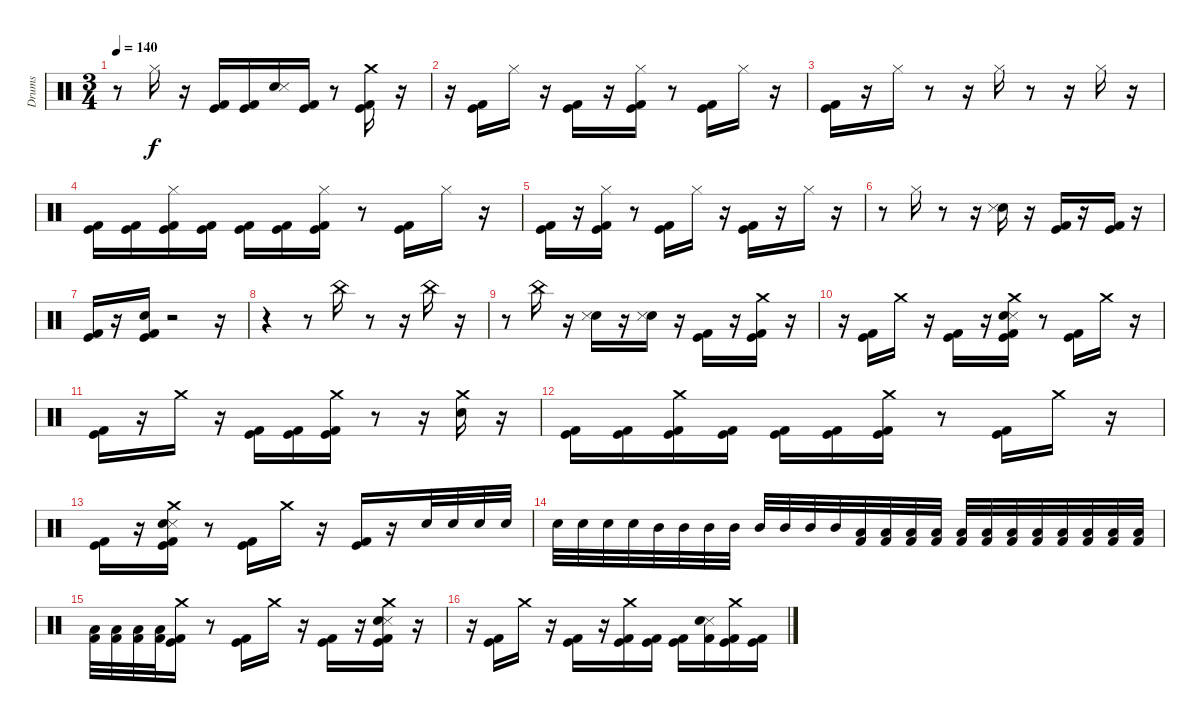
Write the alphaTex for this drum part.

\track ("Drums" "Drums") {instrument percussion}
\staff {score}
\articulation defaults
\ts (3 4)
\tempo 140
\clef neutral
\ks c
r.8{dy f} "Hi-Hat (closed)".16 r.16 ("Kick (hit)" "Kick (hit) 2").16 ("Kick (hit)" "Kick (hit) 2").16 ("Electric Snare (hit)" "Snare (side stick) 3").16 ("Kick (hit)" "Kick (hit) 2").16 r.8 ("Crash medium (hit)" "Kick (hit)" "Kick (hit) 2").16 r.16 |
r.16 ("Kick (hit)" "Kick (hit) 2").16 "Hi-Hat (closed)".16 r.16 ("Kick (hit)" "Kick (hit) 2").16 r.16 ("Hi-Hat (closed)" "Kick (hit)" "Kick (hit) 2").16 r.8 ("Kick (hit)" "Kick (hit) 2").16 "Hi-Hat (closed)".16 r.16 |
("Kick (hit)" "Kick (hit) 2").16 r.16 "Hi-Hat (closed)".16 r.8 r.16 "Hi-Hat (closed)".16 r.8 r.16 "Hi-Hat (closed)".16 r.16 |
("Kick (hit)" "Kick (hit) 2").16 ("Kick (hit)" "Kick (hit) 2").16 ("Hi-Hat (closed)" "Kick (hit)" "Kick (hit) 2").16 ("Kick (hit)" "Kick (hit) 2").16 ("Kick (hit)" "Kick (hit) 2").16 ("Kick (hit)" "Kick (hit) 2").16 ("Hi-Hat (closed)" "Kick (hit)" "Kick (hit) 2").16 r.8 ("Kick (hit)" "Kick (hit) 2").16 "Hi-Hat (closed)".16 r.16 |
("Kick (hit)" "Kick (hit) 2").16 r.16 ("Hi-Hat (closed)" "Kick (hit)" "Kick (hit) 2").16 r.8 ("Kick (hit)" "Kick (hit) 2").16 "Hi-Hat (closed)".16 r.16 ("Kick (hit)" "Kick (hit) 2").16 r.16 "Hi-Hat (closed)".16 r.16 |
r.8 "Hi-Hat (closed)".16 r.8 r.16 ("Electric Snare (hit)" "Snare (side stick) 3").16 r.16 ("Kick (hit)" "Kick (hit) 2").16 r.16 ("Kick (hit)" "Kick (hit) 2").16 r.16 |
("Kick (hit)" "Kick (hit) 2").16 r.16 ("Kick (hit) 2" "Electric Snare (hit)" "Kick (hit)").16 r.2 r.16 |
r.4 r.8 "China (hit)".16 r.8 r.16 "China (hit)".16 r.16 |
r.8 "China (hit)".16 r.16 ("Electric Snare (hit)" "Snare (side stick) 3").16 r.16 ("Electric Snare (hit)" "Snare (side stick) 3").16 r.16 ("Kick (hit)" "Kick (hit) 2").16 r.16 ("Crash medium (hit)" "Kick (hit)" "Kick (hit) 2").16 r.16 |
r.16 ("Kick (hit)" "Kick (hit) 2").16 "Crash medium (hit)".16 r.16 ("Kick (hit)" "Kick (hit) 2").16 r.16 ("Crash medium (hit)" "Snare (side stick) 3" "Electric Snare (hit)" "Kick (hit)" "Kick (hit) 2").16 r.8 ("Kick (hit)" "Kick (hit) 2").16 "Crash medium (hit)".16 r.16 |
("Kick (hit)" "Kick (hit) 2").16 r.16 "Crash medium (hit)".16 r.16 ("Kick (hit)" "Kick (hit) 2").16 ("Kick (hit)" "Kick (hit) 2").16 ("Crash medium (hit)" "Kick (hit)" "Kick (hit) 2").16 r.8 r.16 ("Crash medium (hit)" "Electric Snare (hit)").16 r.16 |
("Kick (hit)" "Kick (hit) 2").16 ("Kick (hit)" "Kick (hit) 2").16 ("Crash medium (hit)" "Kick (hit)" "Kick (hit) 2").16 ("Kick (hit)" "Kick (hit) 2").16 ("Kick (hit)" "Kick (hit) 2").16 ("Kick (hit)" "Kick (hit) 2").16 ("Crash medium (hit)" "Kick (hit)" "Kick (hit) 2").16 r.8 ("Kick (hit)" "Kick (hit) 2").16 "Crash medium (hit)".16 r.16 |
("Kick (hit)" "Kick (hit) 2").16 r.16 ("Crash medium (hit)" "Snare (side stick) 3" "Electric Snare (hit)" "Kick (hit)" "Kick (hit) 2").16 r.8 ("Kick (hit)" "Kick (hit) 2").16 "Crash medium (hit)".16 r.16 ("Kick (hit)" "Kick (hit) 2").16 r.16 "Electric Snare (hit)".32 "Electric Snare (hit)".32 "Electric Snare (hit)".32 "Electric Snare (hit)".32 |
"Electric Snare (hit)".32 "Electric Snare (hit)".32 "Electric Snare (hit)".32 "Electric Snare (hit)".32 "Mid Tom (hit)".32 "Mid Tom (hit)".32 "Mid Tom (hit)".32 "Mid Tom (hit)".32 "Mid Tom (hit)".32 "Mid Tom (hit)".32 "Mid Tom (hit)".32 "Mid Tom (hit)".32 ("Low Tom (hit)" "Kick (hit) 2").32 ("Low Tom (hit)" "Kick (hit) 2").32 ("Low Tom (hit)" "Kick (hit) 2").32 ("Low Tom (hit)" "Kick (hit) 2").32 ("Low Tom (hit)" "Kick (hit) 2").32 ("Low Tom (hit)" "Kick (hit) 2").32 ("Low Tom (hit)" "Kick (hit) 2").32 ("Low Tom (hit)" "Kick (hit) 2").32 ("Low Floor Tom (hit)" "Kick (hit) 2").32 ("Low Floor Tom (hit)" "Kick (hit) 2").32 ("Low Floor Tom (hit)" "Kick (hit) 2").32 ("Low Floor Tom (hit)" "Kick (hit) 2").32 |
("Low Floor Tom (hit)" "Kick (hit) 2").32 ("Low Floor Tom (hit)" "Kick (hit) 2").32 ("Low Floor Tom (hit)" "Kick (hit) 2").32 ("Low Floor Tom (hit)" "Kick (hit) 2").32 ("Crash medium (hit)" "Kick (hit)" "Kick (hit) 2").16 r.8 ("Kick (hit)" "Kick (hit) 2").16 "Crash medium (hit)".16 r.16 ("Kick (hit)" "Kick (hit) 2").16 r.16 ("Crash medium (hit)" "Snare (side stick) 3" "Electric Snare (hit)" "Kick (hit)" "Kick (hit) 2").16 r.16 |
r.16 ("Kick (hit)" "Kick (hit) 2").16 "Crash medium (hit)".16 r.16 ("Kick (hit)" "Kick (hit) 2").16 r.16 ("Crash medium (hit)" "Kick (hit)" "Kick (hit) 2").16 ("Kick (hit)" "Kick (hit) 2").16 ("Kick (hit)" "Kick (hit) 2").16 ("Snare (side stick) 3" "Electric Snare (hit)" "Kick (hit) 2").16 ("Crash medium (hit)" "Kick (hit)" "Kick (hit) 2").16 ("Kick (hit)" "Kick (hit) 2").16
